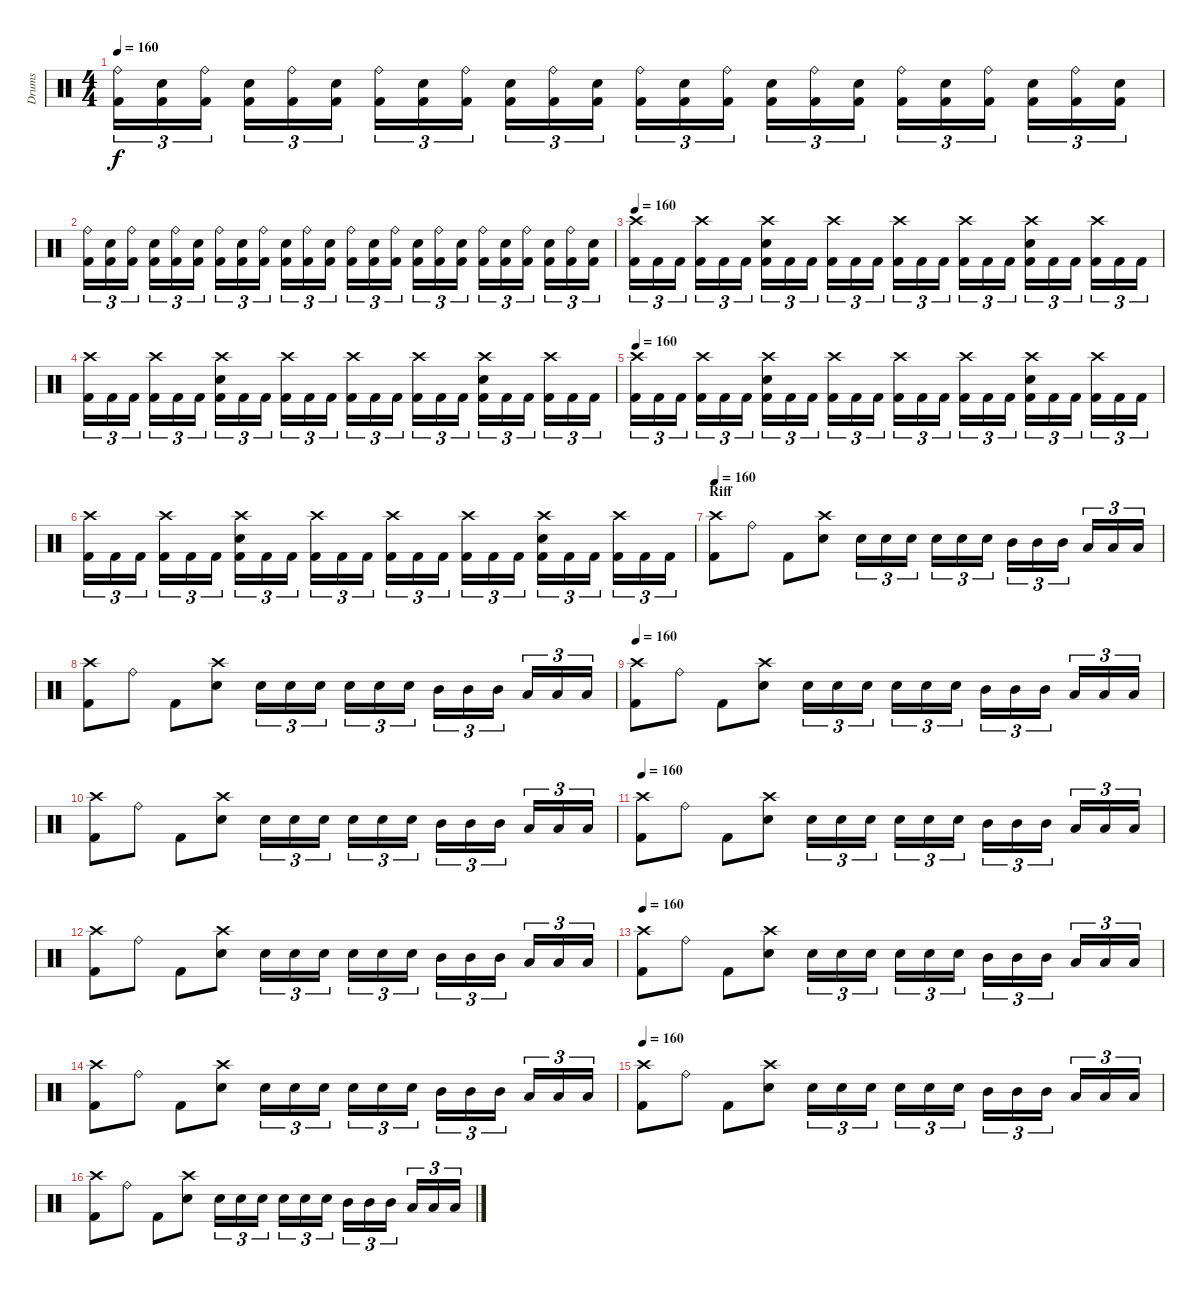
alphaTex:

\track ("Drums" "Drums") {instrument percussion}
\staff {score}
\articulation defaults
\ts (4 4)
\tempo 160
\clef neutral
\ks c
("Ride (bell)" "Kick (hit) 2").16{tu (3 2) dy f} ("Electric Snare (hit)" "Kick (hit) 2").16{tu (3 2)} ("Ride (bell)" "Kick (hit) 2").16{tu (3 2)} ("Electric Snare (hit)" "Kick (hit) 2").16{tu (3 2)} ("Ride (bell)" "Kick (hit) 2").16{tu (3 2)} ("Electric Snare (hit)" "Kick (hit) 2").16{tu (3 2)} ("Ride (bell)" "Kick (hit) 2").16{tu (3 2)} ("Electric Snare (hit)" "Kick (hit) 2").16{tu (3 2)} ("Ride (bell)" "Kick (hit) 2").16{tu (3 2)} ("Electric Snare (hit)" "Kick (hit) 2").16{tu (3 2)} ("Ride (bell)" "Kick (hit) 2").16{tu (3 2)} ("Electric Snare (hit)" "Kick (hit) 2").16{tu (3 2)} ("Ride (bell)" "Kick (hit) 2").16{tu (3 2)} ("Electric Snare (hit)" "Kick (hit) 2").16{tu (3 2)} ("Ride (bell)" "Kick (hit) 2").16{tu (3 2)} ("Electric Snare (hit)" "Kick (hit) 2").16{tu (3 2)} ("Ride (bell)" "Kick (hit) 2").16{tu (3 2)} ("Electric Snare (hit)" "Kick (hit) 2").16{tu (3 2)} ("Ride (bell)" "Kick (hit) 2").16{tu (3 2)} ("Electric Snare (hit)" "Kick (hit) 2").16{tu (3 2)} ("Ride (bell)" "Kick (hit) 2").16{tu (3 2)} ("Electric Snare (hit)" "Kick (hit) 2").16{tu (3 2)} ("Ride (bell)" "Kick (hit) 2").16{tu (3 2)} ("Electric Snare (hit)" "Kick (hit) 2").16{tu (3 2)} |
("Ride (bell)" "Kick (hit) 2").16{tu (3 2)} ("Electric Snare (hit)" "Kick (hit) 2").16{tu (3 2)} ("Ride (bell)" "Kick (hit) 2").16{tu (3 2)} ("Electric Snare (hit)" "Kick (hit) 2").16{tu (3 2)} ("Ride (bell)" "Kick (hit) 2").16{tu (3 2)} ("Electric Snare (hit)" "Kick (hit) 2").16{tu (3 2)} ("Ride (bell)" "Kick (hit) 2").16{tu (3 2)} ("Electric Snare (hit)" "Kick (hit) 2").16{tu (3 2)} ("Ride (bell)" "Kick (hit) 2").16{tu (3 2)} ("Electric Snare (hit)" "Kick (hit) 2").16{tu (3 2)} ("Ride (bell)" "Kick (hit) 2").16{tu (3 2)} ("Electric Snare (hit)" "Kick (hit) 2").16{tu (3 2)} ("Ride (bell)" "Kick (hit) 2").16{tu (3 2)} ("Electric Snare (hit)" "Kick (hit) 2").16{tu (3 2)} ("Ride (bell)" "Kick (hit) 2").16{tu (3 2)} ("Electric Snare (hit)" "Kick (hit) 2").16{tu (3 2)} ("Ride (bell)" "Kick (hit) 2").16{tu (3 2)} ("Electric Snare (hit)" "Kick (hit) 2").16{tu (3 2)} ("Ride (bell)" "Kick (hit) 2").16{tu (3 2)} ("Electric Snare (hit)" "Kick (hit) 2").16{tu (3 2)} ("Ride (bell)" "Kick (hit) 2").16{tu (3 2)} ("Electric Snare (hit)" "Kick (hit) 2").16{tu (3 2)} ("Ride (bell)" "Kick (hit) 2").16{tu (3 2)} ("Electric Snare (hit)" "Kick (hit) 2").16{tu (3 2)} |
\tempo 160
("Crash high (hit)" "Kick (hit) 2").16{tu (3 2)} "Kick (hit) 2".16{tu (3 2)} "Kick (hit) 2".16{tu (3 2)} ("Crash high (hit)" "Kick (hit) 2").16{tu (3 2)} "Kick (hit) 2".16{tu (3 2)} "Kick (hit) 2".16{tu (3 2)} ("Crash high (hit)" "Electric Snare (hit)" "Kick (hit) 2").16{tu (3 2)} "Kick (hit) 2".16{tu (3 2)} "Kick (hit) 2".16{tu (3 2)} ("Crash high (hit)" "Kick (hit) 2").16{tu (3 2)} "Kick (hit) 2".16{tu (3 2)} "Kick (hit) 2".16{tu (3 2)} ("Crash high (hit)" "Kick (hit) 2").16{tu (3 2)} "Kick (hit) 2".16{tu (3 2)} "Kick (hit) 2".16{tu (3 2)} ("Crash high (hit)" "Kick (hit) 2").16{tu (3 2)} "Kick (hit) 2".16{tu (3 2)} "Kick (hit) 2".16{tu (3 2)} ("Crash high (hit)" "Electric Snare (hit)" "Kick (hit) 2").16{tu (3 2)} "Kick (hit) 2".16{tu (3 2)} "Kick (hit) 2".16{tu (3 2)} ("Crash high (hit)" "Kick (hit) 2").16{tu (3 2)} "Kick (hit) 2".16{tu (3 2)} "Kick (hit) 2".16{tu (3 2)} |
("Crash high (hit)" "Kick (hit) 2").16{tu (3 2)} "Kick (hit) 2".16{tu (3 2)} "Kick (hit) 2".16{tu (3 2)} ("Crash high (hit)" "Kick (hit) 2").16{tu (3 2)} "Kick (hit) 2".16{tu (3 2)} "Kick (hit) 2".16{tu (3 2)} ("Crash high (hit)" "Electric Snare (hit)" "Kick (hit) 2").16{tu (3 2)} "Kick (hit) 2".16{tu (3 2)} "Kick (hit) 2".16{tu (3 2)} ("Crash high (hit)" "Kick (hit) 2").16{tu (3 2)} "Kick (hit) 2".16{tu (3 2)} "Kick (hit) 2".16{tu (3 2)} ("Crash high (hit)" "Kick (hit) 2").16{tu (3 2)} "Kick (hit) 2".16{tu (3 2)} "Kick (hit) 2".16{tu (3 2)} ("Crash high (hit)" "Kick (hit) 2").16{tu (3 2)} "Kick (hit) 2".16{tu (3 2)} "Kick (hit) 2".16{tu (3 2)} ("Crash high (hit)" "Electric Snare (hit)" "Kick (hit) 2").16{tu (3 2)} "Kick (hit) 2".16{tu (3 2)} "Kick (hit) 2".16{tu (3 2)} ("Crash high (hit)" "Kick (hit) 2").16{tu (3 2)} "Kick (hit) 2".16{tu (3 2)} "Kick (hit) 2".16{tu (3 2)} |
\tempo 160
("Crash high (hit)" "Kick (hit) 2").16{tu (3 2)} "Kick (hit) 2".16{tu (3 2)} "Kick (hit) 2".16{tu (3 2)} ("Crash high (hit)" "Kick (hit) 2").16{tu (3 2)} "Kick (hit) 2".16{tu (3 2)} "Kick (hit) 2".16{tu (3 2)} ("Crash high (hit)" "Electric Snare (hit)" "Kick (hit) 2").16{tu (3 2)} "Kick (hit) 2".16{tu (3 2)} "Kick (hit) 2".16{tu (3 2)} ("Crash high (hit)" "Kick (hit) 2").16{tu (3 2)} "Kick (hit) 2".16{tu (3 2)} "Kick (hit) 2".16{tu (3 2)} ("Crash high (hit)" "Kick (hit) 2").16{tu (3 2)} "Kick (hit) 2".16{tu (3 2)} "Kick (hit) 2".16{tu (3 2)} ("Crash high (hit)" "Kick (hit) 2").16{tu (3 2)} "Kick (hit) 2".16{tu (3 2)} "Kick (hit) 2".16{tu (3 2)} ("Crash high (hit)" "Electric Snare (hit)" "Kick (hit) 2").16{tu (3 2)} "Kick (hit) 2".16{tu (3 2)} "Kick (hit) 2".16{tu (3 2)} ("Crash high (hit)" "Kick (hit) 2").16{tu (3 2)} "Kick (hit) 2".16{tu (3 2)} "Kick (hit) 2".16{tu (3 2)} |
("Crash high (hit)" "Kick (hit) 2").16{tu (3 2)} "Kick (hit) 2".16{tu (3 2)} "Kick (hit) 2".16{tu (3 2)} ("Crash high (hit)" "Kick (hit) 2").16{tu (3 2)} "Kick (hit) 2".16{tu (3 2)} "Kick (hit) 2".16{tu (3 2)} ("Crash high (hit)" "Electric Snare (hit)" "Kick (hit) 2").16{tu (3 2)} "Kick (hit) 2".16{tu (3 2)} "Kick (hit) 2".16{tu (3 2)} ("Crash high (hit)" "Kick (hit) 2").16{tu (3 2)} "Kick (hit) 2".16{tu (3 2)} "Kick (hit) 2".16{tu (3 2)} ("Crash high (hit)" "Kick (hit) 2").16{tu (3 2)} "Kick (hit) 2".16{tu (3 2)} "Kick (hit) 2".16{tu (3 2)} ("Crash high (hit)" "Kick (hit) 2").16{tu (3 2)} "Kick (hit) 2".16{tu (3 2)} "Kick (hit) 2".16{tu (3 2)} ("Crash high (hit)" "Electric Snare (hit)" "Kick (hit) 2").16{tu (3 2)} "Kick (hit) 2".16{tu (3 2)} "Kick (hit) 2".16{tu (3 2)} ("Crash high (hit)" "Kick (hit) 2").16{tu (3 2)} "Kick (hit) 2".16{tu (3 2)} "Kick (hit) 2".16{tu (3 2)} |
\section ("" "Riff")
\tempo 160
("Crash high (hit)" "Kick (hit) 2").8 "Ride (bell)".8 "Kick (hit) 2".8 ("Crash high (hit)" "Electric Snare (hit)").8 "Electric Snare (hit)".16{tu (3 2)} "Electric Snare (hit)".16{tu (3 2)} "Electric Snare (hit)".16{tu (3 2)} "Electric Snare (hit)".16{tu (3 2)} "Electric Snare (hit)".16{tu (3 2)} "Electric Snare (hit)".16{tu (3 2)} "Mid Tom (hit)".16{tu (3 2)} "Mid Tom (hit)".16{tu (3 2)} "Mid Tom (hit)".16{tu (3 2)} "Low Tom (hit)".16{tu (3 2)} "Low Tom (hit)".16{tu (3 2)} "Low Tom (hit)".16{tu (3 2)} |
("Crash high (hit)" "Kick (hit) 2").8 "Ride (bell)".8 "Kick (hit) 2".8 ("Crash high (hit)" "Electric Snare (hit)").8 "Electric Snare (hit)".16{tu (3 2)} "Electric Snare (hit)".16{tu (3 2)} "Electric Snare (hit)".16{tu (3 2)} "Electric Snare (hit)".16{tu (3 2)} "Electric Snare (hit)".16{tu (3 2)} "Electric Snare (hit)".16{tu (3 2)} "Mid Tom (hit)".16{tu (3 2)} "Mid Tom (hit)".16{tu (3 2)} "Mid Tom (hit)".16{tu (3 2)} "Low Tom (hit)".16{tu (3 2)} "Low Tom (hit)".16{tu (3 2)} "Low Tom (hit)".16{tu (3 2)} |
\tempo 160
("Crash high (hit)" "Kick (hit) 2").8 "Ride (bell)".8 "Kick (hit) 2".8 ("Crash high (hit)" "Electric Snare (hit)").8 "Electric Snare (hit)".16{tu (3 2)} "Electric Snare (hit)".16{tu (3 2)} "Electric Snare (hit)".16{tu (3 2)} "Electric Snare (hit)".16{tu (3 2)} "Electric Snare (hit)".16{tu (3 2)} "Electric Snare (hit)".16{tu (3 2)} "Mid Tom (hit)".16{tu (3 2)} "Mid Tom (hit)".16{tu (3 2)} "Mid Tom (hit)".16{tu (3 2)} "Low Tom (hit)".16{tu (3 2)} "Low Tom (hit)".16{tu (3 2)} "Low Tom (hit)".16{tu (3 2)} |
("Crash high (hit)" "Kick (hit) 2").8 "Ride (bell)".8 "Kick (hit) 2".8 ("Crash high (hit)" "Electric Snare (hit)").8 "Electric Snare (hit)".16{tu (3 2)} "Electric Snare (hit)".16{tu (3 2)} "Electric Snare (hit)".16{tu (3 2)} "Electric Snare (hit)".16{tu (3 2)} "Electric Snare (hit)".16{tu (3 2)} "Electric Snare (hit)".16{tu (3 2)} "Mid Tom (hit)".16{tu (3 2)} "Mid Tom (hit)".16{tu (3 2)} "Mid Tom (hit)".16{tu (3 2)} "Low Tom (hit)".16{tu (3 2)} "Low Tom (hit)".16{tu (3 2)} "Low Tom (hit)".16{tu (3 2)} |
\tempo 160
("Crash high (hit)" "Kick (hit) 2").8 "Ride (bell)".8 "Kick (hit) 2".8 ("Crash high (hit)" "Electric Snare (hit)").8 "Electric Snare (hit)".16{tu (3 2)} "Electric Snare (hit)".16{tu (3 2)} "Electric Snare (hit)".16{tu (3 2)} "Electric Snare (hit)".16{tu (3 2)} "Electric Snare (hit)".16{tu (3 2)} "Electric Snare (hit)".16{tu (3 2)} "Mid Tom (hit)".16{tu (3 2)} "Mid Tom (hit)".16{tu (3 2)} "Mid Tom (hit)".16{tu (3 2)} "Low Tom (hit)".16{tu (3 2)} "Low Tom (hit)".16{tu (3 2)} "Low Tom (hit)".16{tu (3 2)} |
("Crash high (hit)" "Kick (hit) 2").8 "Ride (bell)".8 "Kick (hit) 2".8 ("Crash high (hit)" "Electric Snare (hit)").8 "Electric Snare (hit)".16{tu (3 2)} "Electric Snare (hit)".16{tu (3 2)} "Electric Snare (hit)".16{tu (3 2)} "Electric Snare (hit)".16{tu (3 2)} "Electric Snare (hit)".16{tu (3 2)} "Electric Snare (hit)".16{tu (3 2)} "Mid Tom (hit)".16{tu (3 2)} "Mid Tom (hit)".16{tu (3 2)} "Mid Tom (hit)".16{tu (3 2)} "Low Tom (hit)".16{tu (3 2)} "Low Tom (hit)".16{tu (3 2)} "Low Tom (hit)".16{tu (3 2)} |
\tempo 160
("Crash high (hit)" "Kick (hit) 2").8 "Ride (bell)".8 "Kick (hit) 2".8 ("Crash high (hit)" "Electric Snare (hit)").8 "Electric Snare (hit)".16{tu (3 2)} "Electric Snare (hit)".16{tu (3 2)} "Electric Snare (hit)".16{tu (3 2)} "Electric Snare (hit)".16{tu (3 2)} "Electric Snare (hit)".16{tu (3 2)} "Electric Snare (hit)".16{tu (3 2)} "Mid Tom (hit)".16{tu (3 2)} "Mid Tom (hit)".16{tu (3 2)} "Mid Tom (hit)".16{tu (3 2)} "Low Tom (hit)".16{tu (3 2)} "Low Tom (hit)".16{tu (3 2)} "Low Tom (hit)".16{tu (3 2)} |
("Crash high (hit)" "Kick (hit) 2").8 "Ride (bell)".8 "Kick (hit) 2".8 ("Crash high (hit)" "Electric Snare (hit)").8 "Electric Snare (hit)".16{tu (3 2)} "Electric Snare (hit)".16{tu (3 2)} "Electric Snare (hit)".16{tu (3 2)} "Electric Snare (hit)".16{tu (3 2)} "Electric Snare (hit)".16{tu (3 2)} "Electric Snare (hit)".16{tu (3 2)} "Mid Tom (hit)".16{tu (3 2)} "Mid Tom (hit)".16{tu (3 2)} "Mid Tom (hit)".16{tu (3 2)} "Low Tom (hit)".16{tu (3 2)} "Low Tom (hit)".16{tu (3 2)} "Low Tom (hit)".16{tu (3 2)} |
\tempo 160
("Crash high (hit)" "Kick (hit) 2").8 "Ride (bell)".8 "Kick (hit) 2".8 ("Crash high (hit)" "Electric Snare (hit)").8 "Electric Snare (hit)".16{tu (3 2)} "Electric Snare (hit)".16{tu (3 2)} "Electric Snare (hit)".16{tu (3 2)} "Electric Snare (hit)".16{tu (3 2)} "Electric Snare (hit)".16{tu (3 2)} "Electric Snare (hit)".16{tu (3 2)} "Mid Tom (hit)".16{tu (3 2)} "Mid Tom (hit)".16{tu (3 2)} "Mid Tom (hit)".16{tu (3 2)} "Low Tom (hit)".16{tu (3 2)} "Low Tom (hit)".16{tu (3 2)} "Low Tom (hit)".16{tu (3 2)} |
("Crash high (hit)" "Kick (hit) 2").8 "Ride (bell)".8 "Kick (hit) 2".8 ("Crash high (hit)" "Electric Snare (hit)").8 "Electric Snare (hit)".16{tu (3 2)} "Electric Snare (hit)".16{tu (3 2)} "Electric Snare (hit)".16{tu (3 2)} "Electric Snare (hit)".16{tu (3 2)} "Electric Snare (hit)".16{tu (3 2)} "Electric Snare (hit)".16{tu (3 2)} "Mid Tom (hit)".16{tu (3 2)} "Mid Tom (hit)".16{tu (3 2)} "Mid Tom (hit)".16{tu (3 2)} "Low Tom (hit)".16{tu (3 2)} "Low Tom (hit)".16{tu (3 2)} "Low Tom (hit)".16{tu (3 2)}
